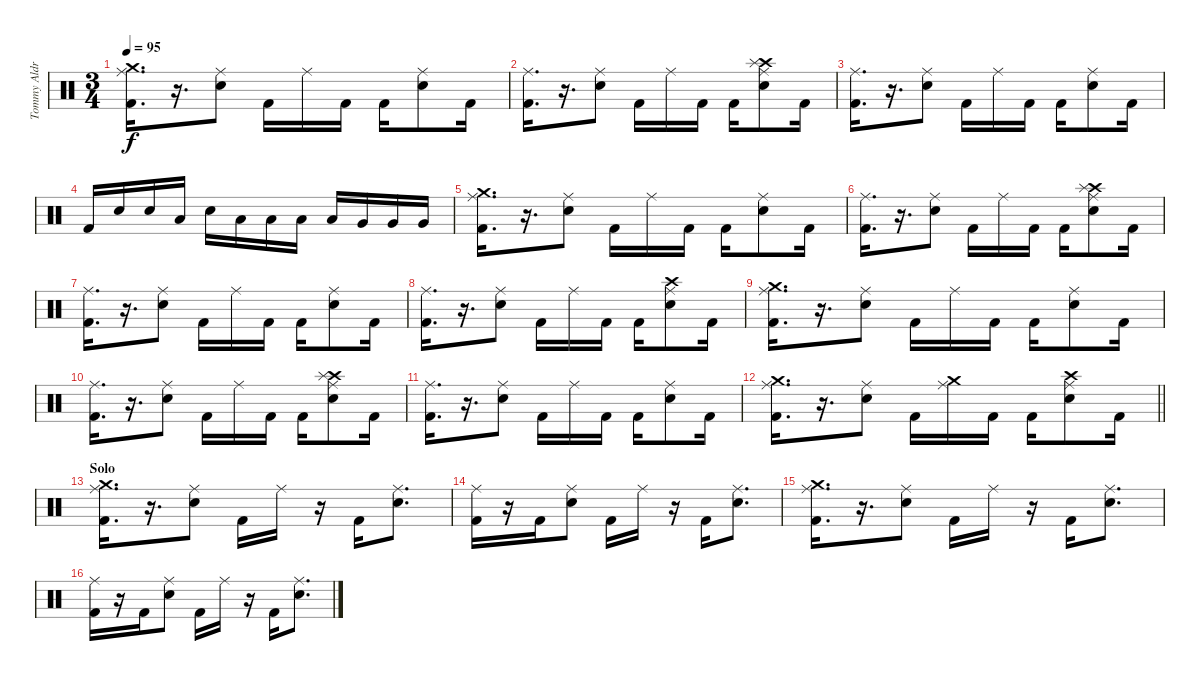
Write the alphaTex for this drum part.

\track ("Tommy Aldridge" "Tommy Aldr") {instrument percussion}
\staff {score}
\articulation defaults
\ts (3 4)
\tempo 95
\clef neutral
\ks c
("Crash medium (hit)" "Ride (middle)" "Kick (hit) 2").16{d dy f} r.16{d} ("Ride (middle)" "Snare (hit) 2").8 "Kick (hit) 2".16 "Ride (middle)".16 "Kick (hit) 2".16 "Kick (hit) 2".16 ("Ride (middle)" "Snare (hit) 2").8 "Kick (hit) 2".16 |
("Ride (middle)" "Kick (hit) 2").16{d} r.16{d} ("Ride (middle)" "Snare (hit) 2").8 "Kick (hit) 2".16 "Ride (middle)".16 "Kick (hit) 2".16 "Kick (hit) 2".16 ("Crash high (hit)" "Splash (hit)" "Ride (middle)" "Snare (hit) 2").8 "Kick (hit) 2".16 |
("Ride (middle)" "Kick (hit) 2").16{d} r.16{d} ("Ride (middle)" "Snare (hit) 2").8 "Kick (hit) 2".16 "Ride (middle)".16 "Kick (hit) 2".16 "Kick (hit) 2".16 ("Ride (middle)" "Snare (hit) 2").8 "Kick (hit) 2".16 |
"Kick (hit) 2".16 "Snare (hit) 2".16 "Snare (hit) 2".16 "Low Tom (hit)".16 "Snare (hit) 2".16 "Low Tom (hit)".16 "Low Tom (hit)".16 "Low Tom (hit)".16 "Low Tom (hit)".16 "Very Low Tom (hit)".16 "Very Low Tom (hit)".16 "Very Low Tom (hit)".16 |
("Crash medium (hit)" "Ride (middle)" "Kick (hit) 2").16{d} r.16{d} ("Ride (middle)" "Snare (hit) 2").8 "Kick (hit) 2".16 "Ride (middle)".16 "Kick (hit) 2".16 "Kick (hit) 2".16 ("Ride (middle)" "Snare (hit) 2").8 "Kick (hit) 2".16 |
("Ride (middle)" "Kick (hit) 2").16{d} r.16{d} ("Ride (middle)" "Snare (hit) 2").8 "Kick (hit) 2".16 "Ride (middle)".16 "Kick (hit) 2".16 "Kick (hit) 2".16 ("Crash high (hit)" "Splash (hit)" "Ride (middle)" "Snare (hit) 2").8 "Kick (hit) 2".16 |
("Ride (middle)" "Kick (hit) 2").16{d} r.16{d} ("Ride (middle)" "Snare (hit) 2").8 "Kick (hit) 2".16 "Ride (middle)".16 "Kick (hit) 2".16 "Kick (hit) 2".16 ("Ride (middle)" "Snare (hit) 2").8 "Kick (hit) 2".16 |
("Ride (middle)" "Kick (hit) 2").16{d} r.16{d} ("Ride (middle)" "Snare (hit) 2").8 "Kick (hit) 2".16 "Ride (middle)".16 "Kick (hit) 2".16 "Kick (hit) 2".16 ("Crash high (hit)" "Ride (middle)" "Snare (hit) 2").8 "Kick (hit) 2".16 |
("Crash medium (hit)" "Ride (middle)" "Kick (hit) 2").16{d} r.16{d} ("Ride (middle)" "Snare (hit) 2").8 "Kick (hit) 2".16 "Ride (middle)".16 "Kick (hit) 2".16 "Kick (hit) 2".16 ("Ride (middle)" "Snare (hit) 2").8 "Kick (hit) 2".16 |
("Ride (middle)" "Kick (hit) 2").16{d} r.16{d} ("Ride (middle)" "Snare (hit) 2").8 "Kick (hit) 2".16 "Ride (middle)".16 "Kick (hit) 2".16 "Kick (hit) 2".16 ("Crash high (hit)" "Splash (hit)" "Ride (middle)" "Snare (hit) 2").8 "Kick (hit) 2".16 |
("Ride (middle)" "Kick (hit) 2").16{d} r.16{d} ("Ride (middle)" "Snare (hit) 2").8 "Kick (hit) 2".16 "Ride (middle)".16 "Kick (hit) 2".16 "Kick (hit) 2".16 ("Ride (middle)" "Snare (hit) 2").8 "Kick (hit) 2".16 |
\barLineRight lightlight
("Crash medium (hit)" "Ride (middle)" "Kick (hit) 2").16{d} r.16{d} ("Ride (middle)" "Snare (hit) 2").8 "Kick (hit) 2".16 ("Crash medium (hit)" "Ride (middle)").16 "Kick (hit) 2".16 "Kick (hit) 2".16 ("Crash high (hit)" "Ride (middle)" "Snare (hit) 2").8 "Kick (hit) 2".16 |
\section ("" "Solo")
("Crash medium (hit)" "Ride (middle)" "Kick (hit) 2").16{d} r.16{d} ("Ride (middle)" "Snare (hit) 2").8 "Kick (hit) 2".16 "Ride (middle)".16 r.16 "Kick (hit) 2".16 ("Ride (middle)" "Snare (hit) 2").8{d} |
("Ride (middle)" "Kick (hit) 2").16 r.16 "Kick (hit) 2".16 ("Ride (middle)" "Snare (hit) 2").8 "Kick (hit) 2".16 "Ride (middle)".16 r.16 "Kick (hit) 2".16 ("Ride (middle)" "Snare (hit) 2").8{d} |
("Crash medium (hit)" "Ride (middle)" "Kick (hit) 2").16{d} r.16{d} ("Ride (middle)" "Snare (hit) 2").8 "Kick (hit) 2".16 "Ride (middle)".16 r.16 "Kick (hit) 2".16 ("Ride (middle)" "Snare (hit) 2").8{d} |
("Ride (middle)" "Kick (hit) 2").16 r.16 "Kick (hit) 2".16 ("Ride (middle)" "Snare (hit) 2").8 "Kick (hit) 2".16 "Ride (middle)".16 r.16 "Kick (hit) 2".16 ("Ride (middle)" "Snare (hit) 2").8{d}
